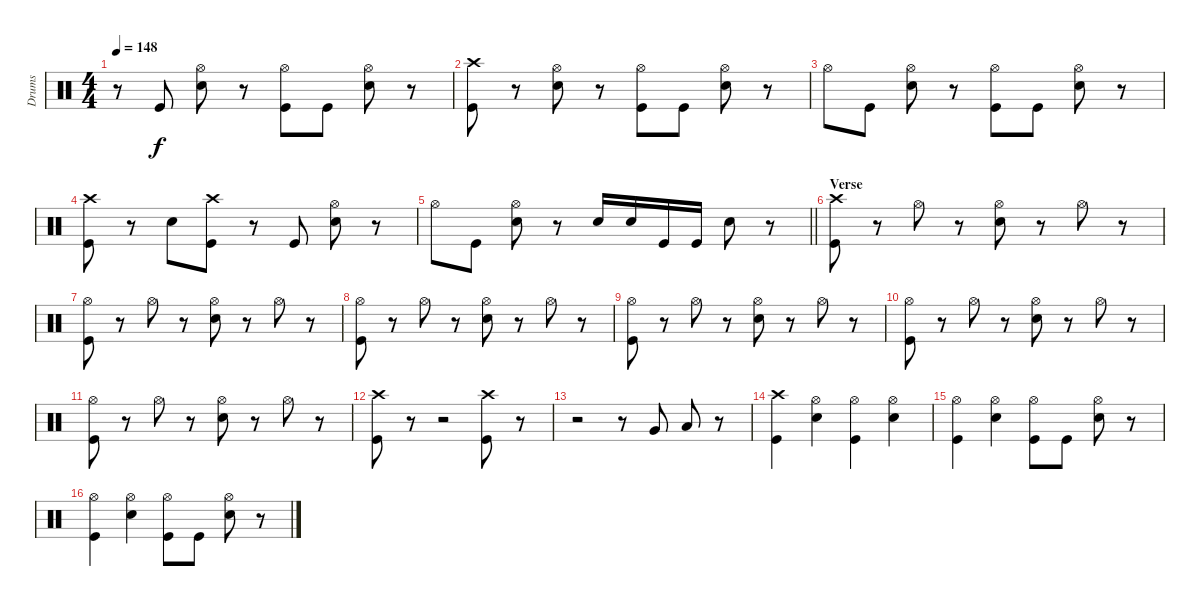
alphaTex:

\track ("Drums" "Drums") {instrument percussion}
\staff {score}
\articulation defaults
\ts (4 4)
\tempo 148
\clef neutral
\ks c
r.8{dy f} "Kick (hit)".8 ("Snare (hit) 2" "Hi-Hat (open)").8 r.8 ("Kick (hit)" "Hi-Hat (open)").8 "Kick (hit)".8 ("Snare (hit) 2" "Hi-Hat (open)").8 r.8 |
("Kick (hit)" "Crash high (hit)").8 r.8 ("Snare (hit) 2" "Hi-Hat (open)").8 r.8 ("Kick (hit)" "Hi-Hat (open)").8 "Kick (hit)".8 ("Snare (hit) 2" "Hi-Hat (open)").8 r.8 |
"Hi-Hat (open)".8 "Kick (hit)".8 ("Hi-Hat (open)" "Snare (hit) 2").8 r.8 ("Hi-Hat (open)" "Kick (hit)").8 "Kick (hit)".8 ("Hi-Hat (open)" "Snare (hit) 2").8 r.8 |
("Kick (hit)" "Crash high (hit)").8 r.8 "Snare (hit) 2".8 ("Kick (hit)" "Crash high (hit)").8 r.8 "Kick (hit)".8 ("Hi-Hat (open)" "Snare (hit) 2").8 r.8 |
\barLineRight lightlight "Hi-Hat (open)".8 "Kick (hit)".8
("Hi-Hat (open)" "Snare (hit) 2").8 r.8 "Snare (hit) 2".16 "Snare (hit) 2".16 "Kick (hit)".16 "Kick (hit)".16 "Snare (hit) 2".8 r.8 |
\section ("" "Verse")
("Crash high (hit)" "Kick (hit)").8 r.8 "Hi-Hat (open)".8 r.8 ("Hi-Hat (open)" "Snare (hit) 2").8 r.8 "Hi-Hat (open)".8 r.8 |
("Hi-Hat (open)" "Kick (hit)").8 r.8 "Hi-Hat (open)".8 r.8 ("Hi-Hat (open)" "Snare (hit) 2").8 r.8 "Hi-Hat (open)".8 r.8 |
("Hi-Hat (open)" "Kick (hit)").8 r.8 "Hi-Hat (open)".8 r.8 ("Hi-Hat (open)" "Snare (hit) 2").8 r.8 "Hi-Hat (open)".8 r.8 |
("Hi-Hat (open)" "Kick (hit)").8 r.8 "Hi-Hat (open)".8 r.8 ("Hi-Hat (open)" "Snare (hit) 2").8 r.8 "Hi-Hat (open)".8 r.8 |
("Hi-Hat (open)" "Kick (hit)").8 r.8 "Hi-Hat (open)".8 r.8 ("Hi-Hat (open)" "Snare (hit) 2").8 r.8 "Hi-Hat (open)".8 r.8 |
("Hi-Hat (open)" "Kick (hit)").8 r.8 "Hi-Hat (open)".8 r.8 ("Hi-Hat (open)" "Snare (hit) 2").8 r.8 "Hi-Hat (open)".8 r.8 |
("Kick (hit)" "Crash high (hit)").8 r.8 r.2 ("Kick (hit)" "Crash high (hit)").8 r.8 |
r.2 r.8 "Very Low Tom (hit)".8 "Low Floor Tom (hit)".8 r.8 |
("Crash high (hit)" "Kick (hit)").4 ("Snare (hit) 2" "Hi-Hat (open)").4 ("Kick (hit)" "Hi-Hat (open)").4 ("Snare (hit) 2" "Hi-Hat (open)").4 |
("Hi-Hat (open)" "Kick (hit)").4 ("Snare (hit) 2" "Hi-Hat (open)").4 ("Kick (hit)" "Hi-Hat (open)").8 "Kick (hit)".8 ("Snare (hit) 2" "Hi-Hat (open)").8 r.8 |
("Hi-Hat (open)" "Kick (hit)").4 ("Snare (hit) 2" "Hi-Hat (open)").4 ("Kick (hit)" "Hi-Hat (open)").8 "Kick (hit)".8 ("Snare (hit) 2" "Hi-Hat (open)").8 r.8
